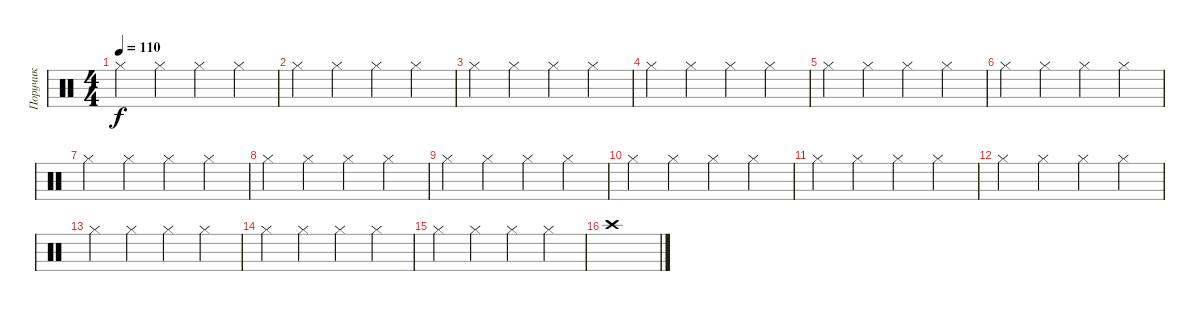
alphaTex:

\track ("Поручик" "Поручик") {instrument percussion}
\staff {score}
\articulation defaults
\ts (4 4)
\tempo 110
\clef neutral
\ks c "Hi-Hat (closed)".4{dy f} "Hi-Hat (closed)".4 "Hi-Hat (closed)".4 "Hi-Hat (closed)".4
|
"Hi-Hat (closed)".4 "Hi-Hat (closed)".4 "Hi-Hat (closed)".4 "Hi-Hat (closed)".4 |
"Hi-Hat (closed)".4 "Hi-Hat (closed)".4 "Hi-Hat (closed)".4 "Hi-Hat (closed)".4 |
"Hi-Hat (closed)".4 "Hi-Hat (closed)".4 "Hi-Hat (closed)".4 "Hi-Hat (closed)".4 |
"Hi-Hat (closed)".4 "Hi-Hat (closed)".4 "Hi-Hat (closed)".4 "Hi-Hat (closed)".4 |
"Hi-Hat (closed)".4 "Hi-Hat (closed)".4 "Hi-Hat (closed)".4 "Hi-Hat (closed)".4 |
"Hi-Hat (closed)".4 "Hi-Hat (closed)".4 "Hi-Hat (closed)".4 "Hi-Hat (closed)".4 |
"Hi-Hat (closed)".4 "Hi-Hat (closed)".4 "Hi-Hat (closed)".4 "Hi-Hat (closed)".4 |
"Hi-Hat (closed)".4 "Hi-Hat (closed)".4 "Hi-Hat (closed)".4 "Hi-Hat (closed)".4 |
"Hi-Hat (closed)".4 "Hi-Hat (closed)".4 "Hi-Hat (closed)".4 "Hi-Hat (closed)".4 |
"Hi-Hat (closed)".4 "Hi-Hat (closed)".4 "Hi-Hat (closed)".4 "Hi-Hat (closed)".4 |
"Hi-Hat (closed)".4 "Hi-Hat (closed)".4 "Hi-Hat (closed)".4 "Hi-Hat (closed)".4 |
"Hi-Hat (closed)".4 "Hi-Hat (closed)".4 "Hi-Hat (closed)".4 "Hi-Hat (closed)".4 |
"Hi-Hat (closed)".4 "Hi-Hat (closed)".4 "Hi-Hat (closed)".4 "Hi-Hat (closed)".4 |
"Hi-Hat (closed)".4 "Hi-Hat (closed)".4 "Hi-Hat (closed)".4 "Hi-Hat (closed)".4 |
"Crash high (hit)".1
